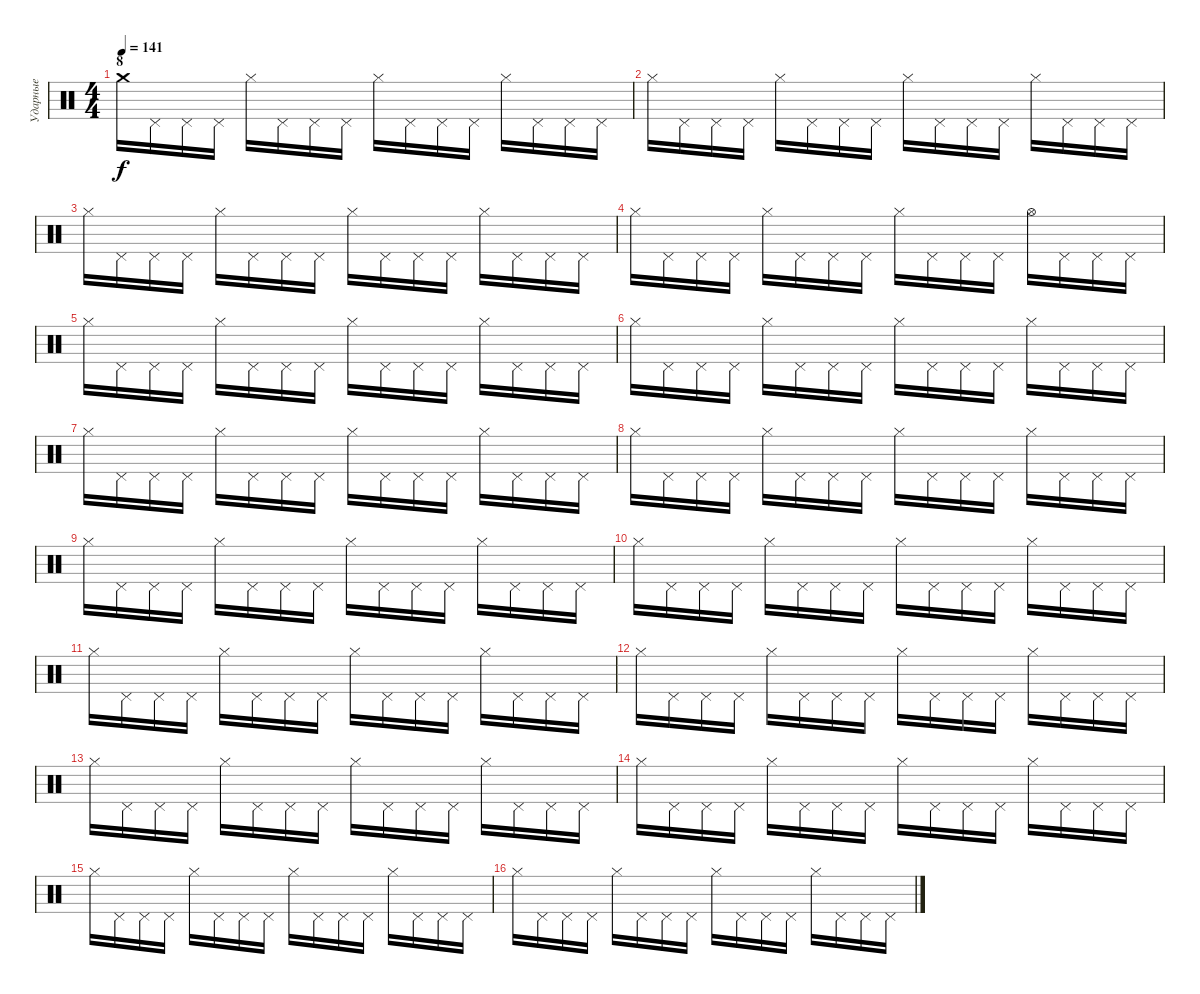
\track ("Ударные" "Ударные") {instrument percussion}
\staff {score}
\articulation defaults
\ts (4 4)
\section ("" "8")
\tempo 141
\clef neutral
\ks c "Crash medium (hit)".16{dy f} "Pedal Hi-Hat (hit)".16 "Pedal Hi-Hat (hit)".16 "Pedal Hi-Hat (hit)".16 "Hi-Hat (closed)".16 "Pedal Hi-Hat (hit)".16 "Pedal Hi-Hat (hit)".16 "Pedal Hi-Hat (hit)".16 "Hi-Hat (closed)".16 "Pedal Hi-Hat (hit)".16 "Pedal Hi-Hat (hit)".16 "Pedal Hi-Hat (hit)".16 "Hi-Hat (closed)".16 "Pedal Hi-Hat (hit)".16 "Pedal Hi-Hat (hit)".16 "Pedal Hi-Hat (hit)".16
|
"Hi-Hat (closed)".16 "Pedal Hi-Hat (hit)".16 "Pedal Hi-Hat (hit)".16 "Pedal Hi-Hat (hit)".16 "Hi-Hat (closed)".16 "Pedal Hi-Hat (hit)".16 "Pedal Hi-Hat (hit)".16 "Pedal Hi-Hat (hit)".16 "Hi-Hat (closed)".16 "Pedal Hi-Hat (hit)".16 "Pedal Hi-Hat (hit)".16 "Pedal Hi-Hat (hit)".16 "Hi-Hat (closed)".16 "Pedal Hi-Hat (hit)".16 "Pedal Hi-Hat (hit)".16 "Pedal Hi-Hat (hit)".16 |
"Hi-Hat (closed)".16 "Pedal Hi-Hat (hit)".16 "Pedal Hi-Hat (hit)".16 "Pedal Hi-Hat (hit)".16 "Hi-Hat (closed)".16 "Pedal Hi-Hat (hit)".16 "Pedal Hi-Hat (hit)".16 "Pedal Hi-Hat (hit)".16 "Hi-Hat (closed)".16 "Pedal Hi-Hat (hit)".16 "Pedal Hi-Hat (hit)".16 "Pedal Hi-Hat (hit)".16 "Hi-Hat (closed)".16 "Pedal Hi-Hat (hit)".16 "Pedal Hi-Hat (hit)".16 "Pedal Hi-Hat (hit)".16 |
"Hi-Hat (closed)".16 "Pedal Hi-Hat (hit)".16 "Pedal Hi-Hat (hit)".16 "Pedal Hi-Hat (hit)".16 "Hi-Hat (closed)".16 "Pedal Hi-Hat (hit)".16 "Pedal Hi-Hat (hit)".16 "Pedal Hi-Hat (hit)".16 "Hi-Hat (closed)".16 "Pedal Hi-Hat (hit)".16 "Pedal Hi-Hat (hit)".16 "Pedal Hi-Hat (hit)".16 "Hi-Hat (open)".16 "Pedal Hi-Hat (hit)".16 "Pedal Hi-Hat (hit)".16 "Pedal Hi-Hat (hit)".16 |
"Hi-Hat (closed)".16 "Pedal Hi-Hat (hit)".16 "Pedal Hi-Hat (hit)".16 "Pedal Hi-Hat (hit)".16 "Hi-Hat (closed)".16 "Pedal Hi-Hat (hit)".16 "Pedal Hi-Hat (hit)".16 "Pedal Hi-Hat (hit)".16 "Hi-Hat (closed)".16 "Pedal Hi-Hat (hit)".16 "Pedal Hi-Hat (hit)".16 "Pedal Hi-Hat (hit)".16 "Hi-Hat (closed)".16 "Pedal Hi-Hat (hit)".16 "Pedal Hi-Hat (hit)".16 "Pedal Hi-Hat (hit)".16 |
"Hi-Hat (closed)".16 "Pedal Hi-Hat (hit)".16 "Pedal Hi-Hat (hit)".16 "Pedal Hi-Hat (hit)".16 "Hi-Hat (closed)".16 "Pedal Hi-Hat (hit)".16 "Pedal Hi-Hat (hit)".16 "Pedal Hi-Hat (hit)".16 "Hi-Hat (closed)".16 "Pedal Hi-Hat (hit)".16 "Pedal Hi-Hat (hit)".16 "Pedal Hi-Hat (hit)".16 "Hi-Hat (closed)".16 "Pedal Hi-Hat (hit)".16 "Pedal Hi-Hat (hit)".16 "Pedal Hi-Hat (hit)".16 |
"Hi-Hat (closed)".16 "Pedal Hi-Hat (hit)".16 "Pedal Hi-Hat (hit)".16 "Pedal Hi-Hat (hit)".16 "Hi-Hat (closed)".16 "Pedal Hi-Hat (hit)".16 "Pedal Hi-Hat (hit)".16 "Pedal Hi-Hat (hit)".16 "Hi-Hat (closed)".16 "Pedal Hi-Hat (hit)".16 "Pedal Hi-Hat (hit)".16 "Pedal Hi-Hat (hit)".16 "Hi-Hat (closed)".16 "Pedal Hi-Hat (hit)".16 "Pedal Hi-Hat (hit)".16 "Pedal Hi-Hat (hit)".16 |
"Hi-Hat (closed)".16 "Pedal Hi-Hat (hit)".16 "Pedal Hi-Hat (hit)".16 "Pedal Hi-Hat (hit)".16 "Hi-Hat (closed)".16 "Pedal Hi-Hat (hit)".16 "Pedal Hi-Hat (hit)".16 "Pedal Hi-Hat (hit)".16 "Hi-Hat (closed)".16 "Pedal Hi-Hat (hit)".16 "Pedal Hi-Hat (hit)".16 "Pedal Hi-Hat (hit)".16 "Hi-Hat (closed)".16 "Pedal Hi-Hat (hit)".16 "Pedal Hi-Hat (hit)".16 "Pedal Hi-Hat (hit)".16 |
"Hi-Hat (closed)".16 "Pedal Hi-Hat (hit)".16 "Pedal Hi-Hat (hit)".16 "Pedal Hi-Hat (hit)".16 "Hi-Hat (closed)".16 "Pedal Hi-Hat (hit)".16 "Pedal Hi-Hat (hit)".16 "Pedal Hi-Hat (hit)".16 "Hi-Hat (closed)".16 "Pedal Hi-Hat (hit)".16 "Pedal Hi-Hat (hit)".16 "Pedal Hi-Hat (hit)".16 "Hi-Hat (closed)".16 "Pedal Hi-Hat (hit)".16 "Pedal Hi-Hat (hit)".16 "Pedal Hi-Hat (hit)".16 |
"Hi-Hat (closed)".16 "Pedal Hi-Hat (hit)".16 "Pedal Hi-Hat (hit)".16 "Pedal Hi-Hat (hit)".16 "Hi-Hat (closed)".16 "Pedal Hi-Hat (hit)".16 "Pedal Hi-Hat (hit)".16 "Pedal Hi-Hat (hit)".16 "Hi-Hat (closed)".16 "Pedal Hi-Hat (hit)".16 "Pedal Hi-Hat (hit)".16 "Pedal Hi-Hat (hit)".16 "Hi-Hat (closed)".16 "Pedal Hi-Hat (hit)".16 "Pedal Hi-Hat (hit)".16 "Pedal Hi-Hat (hit)".16 |
"Hi-Hat (closed)".16 "Pedal Hi-Hat (hit)".16 "Pedal Hi-Hat (hit)".16 "Pedal Hi-Hat (hit)".16 "Hi-Hat (closed)".16 "Pedal Hi-Hat (hit)".16 "Pedal Hi-Hat (hit)".16 "Pedal Hi-Hat (hit)".16 "Hi-Hat (closed)".16 "Pedal Hi-Hat (hit)".16 "Pedal Hi-Hat (hit)".16 "Pedal Hi-Hat (hit)".16 "Hi-Hat (closed)".16 "Pedal Hi-Hat (hit)".16 "Pedal Hi-Hat (hit)".16 "Pedal Hi-Hat (hit)".16 |
"Hi-Hat (closed)".16 "Pedal Hi-Hat (hit)".16 "Pedal Hi-Hat (hit)".16 "Pedal Hi-Hat (hit)".16 "Hi-Hat (closed)".16 "Pedal Hi-Hat (hit)".16 "Pedal Hi-Hat (hit)".16 "Pedal Hi-Hat (hit)".16 "Hi-Hat (closed)".16 "Pedal Hi-Hat (hit)".16 "Pedal Hi-Hat (hit)".16 "Pedal Hi-Hat (hit)".16 "Hi-Hat (closed)".16 "Pedal Hi-Hat (hit)".16 "Pedal Hi-Hat (hit)".16 "Pedal Hi-Hat (hit)".16 |
"Hi-Hat (closed)".16 "Pedal Hi-Hat (hit)".16 "Pedal Hi-Hat (hit)".16 "Pedal Hi-Hat (hit)".16 "Hi-Hat (closed)".16 "Pedal Hi-Hat (hit)".16 "Pedal Hi-Hat (hit)".16 "Pedal Hi-Hat (hit)".16 "Hi-Hat (closed)".16 "Pedal Hi-Hat (hit)".16 "Pedal Hi-Hat (hit)".16 "Pedal Hi-Hat (hit)".16 "Hi-Hat (closed)".16 "Pedal Hi-Hat (hit)".16 "Pedal Hi-Hat (hit)".16 "Pedal Hi-Hat (hit)".16 |
"Hi-Hat (closed)".16 "Pedal Hi-Hat (hit)".16 "Pedal Hi-Hat (hit)".16 "Pedal Hi-Hat (hit)".16 "Hi-Hat (closed)".16 "Pedal Hi-Hat (hit)".16 "Pedal Hi-Hat (hit)".16 "Pedal Hi-Hat (hit)".16 "Hi-Hat (closed)".16 "Pedal Hi-Hat (hit)".16 "Pedal Hi-Hat (hit)".16 "Pedal Hi-Hat (hit)".16 "Hi-Hat (closed)".16 "Pedal Hi-Hat (hit)".16 "Pedal Hi-Hat (hit)".16 "Pedal Hi-Hat (hit)".16 |
"Hi-Hat (closed)".16 "Pedal Hi-Hat (hit)".16 "Pedal Hi-Hat (hit)".16 "Pedal Hi-Hat (hit)".16 "Hi-Hat (closed)".16 "Pedal Hi-Hat (hit)".16 "Pedal Hi-Hat (hit)".16 "Pedal Hi-Hat (hit)".16 "Hi-Hat (closed)".16 "Pedal Hi-Hat (hit)".16 "Pedal Hi-Hat (hit)".16 "Pedal Hi-Hat (hit)".16 "Hi-Hat (closed)".16 "Pedal Hi-Hat (hit)".16 "Pedal Hi-Hat (hit)".16 "Pedal Hi-Hat (hit)".16 |
"Hi-Hat (closed)".16 "Pedal Hi-Hat (hit)".16 "Pedal Hi-Hat (hit)".16 "Pedal Hi-Hat (hit)".16 "Hi-Hat (closed)".16 "Pedal Hi-Hat (hit)".16 "Pedal Hi-Hat (hit)".16 "Pedal Hi-Hat (hit)".16 "Hi-Hat (closed)".16 "Pedal Hi-Hat (hit)".16 "Pedal Hi-Hat (hit)".16 "Pedal Hi-Hat (hit)".16 "Hi-Hat (closed)".16 "Pedal Hi-Hat (hit)".16 "Pedal Hi-Hat (hit)".16 "Pedal Hi-Hat (hit)".16
